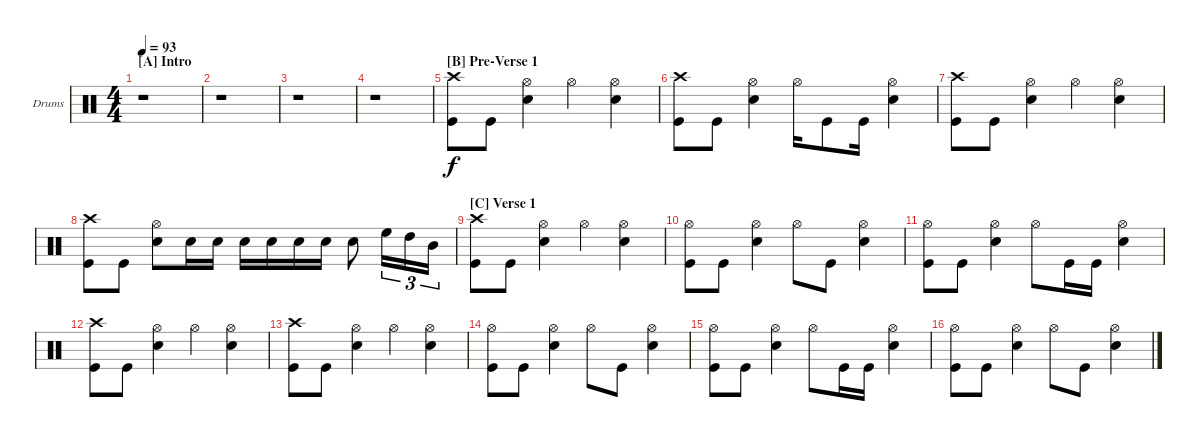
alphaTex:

\bracketExtendMode groupsimilarinstruments
\firstSystemTrackNameOrientation horizontal
\otherSystemsTrackNameOrientation horizontal
\track ("Drums (Tony Palermo)" "Drums") {instrument percussion}
\staff {score}
\articulation defaults
\ts (4 4)
\section ("A" "Intro")
\tempo 93
\clef neutral
\ks c
r.1{dy f} |
r.1 |
r.1 |
r.1 |
\section ("B" "Pre-Verse 1")
("Crash high (hit)" "Kick (hit)").8 "Kick (hit)".8 ("Hi-Hat (open)" "Snare (hit) 2").4 "Hi-Hat (open)".4 ("Hi-Hat (open)" "Snare (hit) 2").4 |
("Crash high (hit)" "Kick (hit)").8 "Kick (hit)".8 ("Hi-Hat (open)" "Snare (hit) 2").4 "Hi-Hat (open)".16 "Kick (hit)".8 "Kick (hit)".16 ("Hi-Hat (open)" "Snare (hit) 2").4 |
("Crash high (hit)" "Kick (hit)").8 "Kick (hit)".8 ("Hi-Hat (open)" "Snare (hit) 2").4 "Hi-Hat (open)".4 ("Hi-Hat (open)" "Snare (hit) 2").4 |
("Crash high (hit)" "Kick (hit)").8 "Kick (hit)".8 ("Hi-Hat (open)" "Snare (hit) 2").8 "Snare (hit) 2".16 "Snare (hit) 2".16 "Snare (hit) 2".16 "Snare (hit) 2".16 "Snare (hit) 2".16 "Snare (hit) 2".16 "Snare (hit) 2".8 "High Floor Tom (hit)".16{tu (3 2)} "High Tom (hit)".16{tu (3 2)} "Mid Tom (hit)".16{tu (3 2)} |
\section ("C" "Verse 1")
("Crash high (hit)" "Kick (hit)").8 "Kick (hit)".8 ("Hi-Hat (open)" "Snare (hit) 2").4 "Hi-Hat (open)".4 ("Hi-Hat (open)" "Snare (hit) 2").4 |
("Hi-Hat (open)" "Kick (hit)").8 "Kick (hit)".8 ("Hi-Hat (open)" "Snare (hit) 2").4 "Hi-Hat (open)".8 "Kick (hit)".8 ("Hi-Hat (open)" "Snare (hit) 2").4 |
("Hi-Hat (open)" "Kick (hit)").8 "Kick (hit)".8 ("Hi-Hat (open)" "Snare (hit) 2").4 "Hi-Hat (open)".8 "Kick (hit)".16 "Kick (hit)".16 ("Hi-Hat (open)" "Snare (hit) 2").4 |
("Crash high (hit)" "Kick (hit)").8 "Kick (hit)".8 ("Hi-Hat (open)" "Snare (hit) 2").4 "Hi-Hat (open)".4 ("Hi-Hat (open)" "Snare (hit) 2").4 |
("Crash high (hit)" "Kick (hit)").8 "Kick (hit)".8 ("Hi-Hat (open)" "Snare (hit) 2").4 "Hi-Hat (open)".4 ("Hi-Hat (open)" "Snare (hit) 2").4 |
("Hi-Hat (open)" "Kick (hit)").8 "Kick (hit)".8 ("Hi-Hat (open)" "Snare (hit) 2").4 "Hi-Hat (open)".8 "Kick (hit)".8 ("Hi-Hat (open)" "Snare (hit) 2").4 |
("Hi-Hat (open)" "Kick (hit)").8 "Kick (hit)".8 ("Hi-Hat (open)" "Snare (hit) 2").4 "Hi-Hat (open)".8 "Kick (hit)".16 "Kick (hit)".16 ("Hi-Hat (open)" "Snare (hit) 2").4 |
("Hi-Hat (open)" "Kick (hit)").8 "Kick (hit)".8 ("Hi-Hat (open)" "Snare (hit) 2").4 "Hi-Hat (open)".8 "Kick (hit)".8 ("Hi-Hat (open)" "Snare (hit) 2").4
